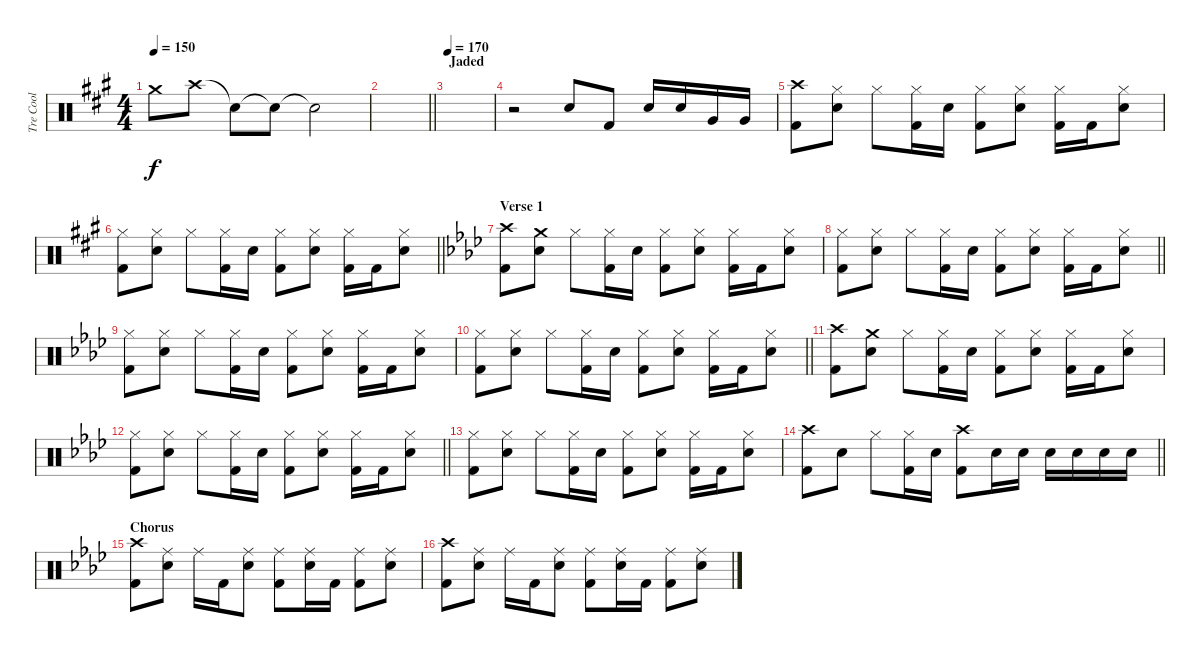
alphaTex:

\track ("Tre Cool" "Tre Cool") {instrument percussion}
\staff {score}
\articulation defaults
\ts (4 4)
\tempo 150
\clef neutral
\ks a "Crash medium (hit)".8{dy f} "Crash high (hit)".8 "Snare (hit)"{t}.8 "Snare (hit)"{t}.8 "Snare (hit)"{t}.2
|
\barLineRight lightlight
|
\section ("" "Jaded")
\tempo 170
|
r.2 "Snare (hit) 2".8 "Kick (hit) 2".8 "Snare (hit) 2".16 "Snare (hit) 2".16 "Very Low Tom (hit)".16 "Very Low Tom (hit)".16 |
("Crash high (hit)" "Kick (hit) 2").8 ("Hi-Hat (closed)" "Snare (hit) 2").8 "Hi-Hat (closed)".8 ("Hi-Hat (closed)" "Kick (hit) 2").16 "Snare (hit) 2".16 ("Hi-Hat (closed)" "Kick (hit) 2").8 ("Hi-Hat (closed)" "Snare (hit) 2").8 ("Hi-Hat (closed)" "Kick (hit) 2").16 "Kick (hit) 2".16 ("Hi-Hat (closed)" "Snare (hit) 2").8 |
\barLineRight lightlight
("Hi-Hat (closed)" "Kick (hit) 2").8 ("Hi-Hat (closed)" "Snare (hit) 2").8 "Hi-Hat (closed)".8 ("Hi-Hat (closed)" "Kick (hit) 2").16 "Snare (hit) 2".16 ("Hi-Hat (closed)" "Kick (hit) 2").8 ("Hi-Hat (closed)" "Snare (hit) 2").8 ("Hi-Hat (closed)" "Kick (hit) 2").16 "Kick (hit) 2".16 ("Hi-Hat (closed)" "Snare (hit) 2").8 |
\section ("" "Verse 1")
\ks ab
("Crash high (hit)" "Kick (hit) 2").8 ("Crash medium (hit)" "Snare (hit) 2").8 "Hi-Hat (closed)".8 ("Hi-Hat (closed)" "Kick (hit) 2").16 "Snare (hit) 2".16 ("Hi-Hat (closed)" "Kick (hit) 2").8 ("Hi-Hat (closed)" "Snare (hit) 2").8 ("Hi-Hat (closed)" "Kick (hit) 2").16 "Kick (hit) 2".16 ("Hi-Hat (closed)" "Snare (hit) 2").8 |
\barLineRight lightlight
("Hi-Hat (closed)" "Kick (hit) 2").8 ("Hi-Hat (closed)" "Snare (hit) 2").8 "Hi-Hat (closed)".8 ("Hi-Hat (closed)" "Kick (hit) 2").16 "Snare (hit) 2".16 ("Hi-Hat (closed)" "Kick (hit) 2").8 ("Hi-Hat (closed)" "Snare (hit) 2").8 ("Hi-Hat (closed)" "Kick (hit) 2").16 "Kick (hit) 2".16 ("Hi-Hat (closed)" "Snare (hit) 2").8 |
("Hi-Hat (closed)" "Kick (hit) 2").8 ("Hi-Hat (closed)" "Snare (hit) 2").8 "Hi-Hat (closed)".8 ("Hi-Hat (closed)" "Kick (hit) 2").16 "Snare (hit) 2".16 ("Hi-Hat (closed)" "Kick (hit) 2").8 ("Hi-Hat (closed)" "Snare (hit) 2").8 ("Hi-Hat (closed)" "Kick (hit) 2").16 "Kick (hit) 2".16 ("Hi-Hat (closed)" "Snare (hit) 2").8 |
\barLineRight lightlight
("Hi-Hat (closed)" "Kick (hit) 2").8 ("Hi-Hat (closed)" "Snare (hit) 2").8 "Hi-Hat (closed)".8 ("Hi-Hat (closed)" "Kick (hit) 2").16 "Snare (hit) 2".16 ("Hi-Hat (closed)" "Kick (hit) 2").8 ("Hi-Hat (closed)" "Snare (hit) 2").8 ("Hi-Hat (closed)" "Kick (hit) 2").16 "Kick (hit) 2".16 ("Hi-Hat (closed)" "Snare (hit) 2").8 |
("Crash high (hit)" "Kick (hit) 2").8 ("Crash medium (hit)" "Snare (hit) 2").8 "Hi-Hat (closed)".8 ("Hi-Hat (closed)" "Kick (hit) 2").16 "Snare (hit) 2".16 ("Hi-Hat (closed)" "Kick (hit) 2").8 ("Hi-Hat (closed)" "Snare (hit) 2").8 ("Hi-Hat (closed)" "Kick (hit) 2").16 "Kick (hit) 2".16 ("Hi-Hat (closed)" "Snare (hit) 2").8 |
\barLineRight lightlight
("Hi-Hat (closed)" "Kick (hit) 2").8 ("Hi-Hat (closed)" "Snare (hit) 2").8 "Hi-Hat (closed)".8 ("Hi-Hat (closed)" "Kick (hit) 2").16 "Snare (hit) 2".16 ("Hi-Hat (closed)" "Kick (hit) 2").8 ("Hi-Hat (closed)" "Snare (hit) 2").8 ("Hi-Hat (closed)" "Kick (hit) 2").16 "Kick (hit) 2".16 ("Hi-Hat (closed)" "Snare (hit) 2").8 |
("Hi-Hat (closed)" "Kick (hit) 2").8 ("Hi-Hat (closed)" "Snare (hit) 2").8 "Hi-Hat (closed)".8 ("Hi-Hat (closed)" "Kick (hit) 2").16 "Snare (hit) 2".16 ("Hi-Hat (closed)" "Kick (hit) 2").8 ("Hi-Hat (closed)" "Snare (hit) 2").8 ("Hi-Hat (closed)" "Kick (hit) 2").16 "Kick (hit) 2".16 ("Hi-Hat (closed)" "Snare (hit) 2").8 |
\barLineRight lightlight
("Crash high (hit)" "Kick (hit) 2").8 "Snare (hit) 2".8 "Hi-Hat (closed)".8 ("Hi-Hat (closed)" "Kick (hit) 2").16 "Snare (hit) 2".16 ("Crash high (hit)" "Kick (hit) 2").8 "Snare (hit) 2".16 "Snare (hit) 2".16 "Snare (hit) 2".16 "Snare (hit) 2".16 "Snare (hit) 2".16 "Snare (hit) 2".16 |
\section ("" "Chorus")
("Crash high (hit)" "Kick (hit) 2").8 ("Ride (middle)" "Snare (hit) 2").8 "Ride (middle)".16 "Kick (hit) 2".16 ("Ride (middle)" "Snare (hit) 2").8 ("Ride (middle)" "Kick (hit) 2").8 ("Ride (middle)" "Snare (hit) 2").16 "Kick (hit) 2".16 ("Ride (middle)" "Kick (hit) 2").8 ("Ride (middle)" "Snare (hit) 2").8 |
("Crash high (hit)" "Kick (hit) 2").8 ("Ride (middle)" "Snare (hit) 2").8 "Ride (middle)".16 "Kick (hit) 2".16 ("Ride (middle)" "Snare (hit) 2").8 ("Ride (middle)" "Kick (hit) 2").8 ("Ride (middle)" "Snare (hit) 2").16 "Kick (hit) 2".16 ("Ride (middle)" "Kick (hit) 2").8 ("Ride (middle)" "Snare (hit) 2").8
